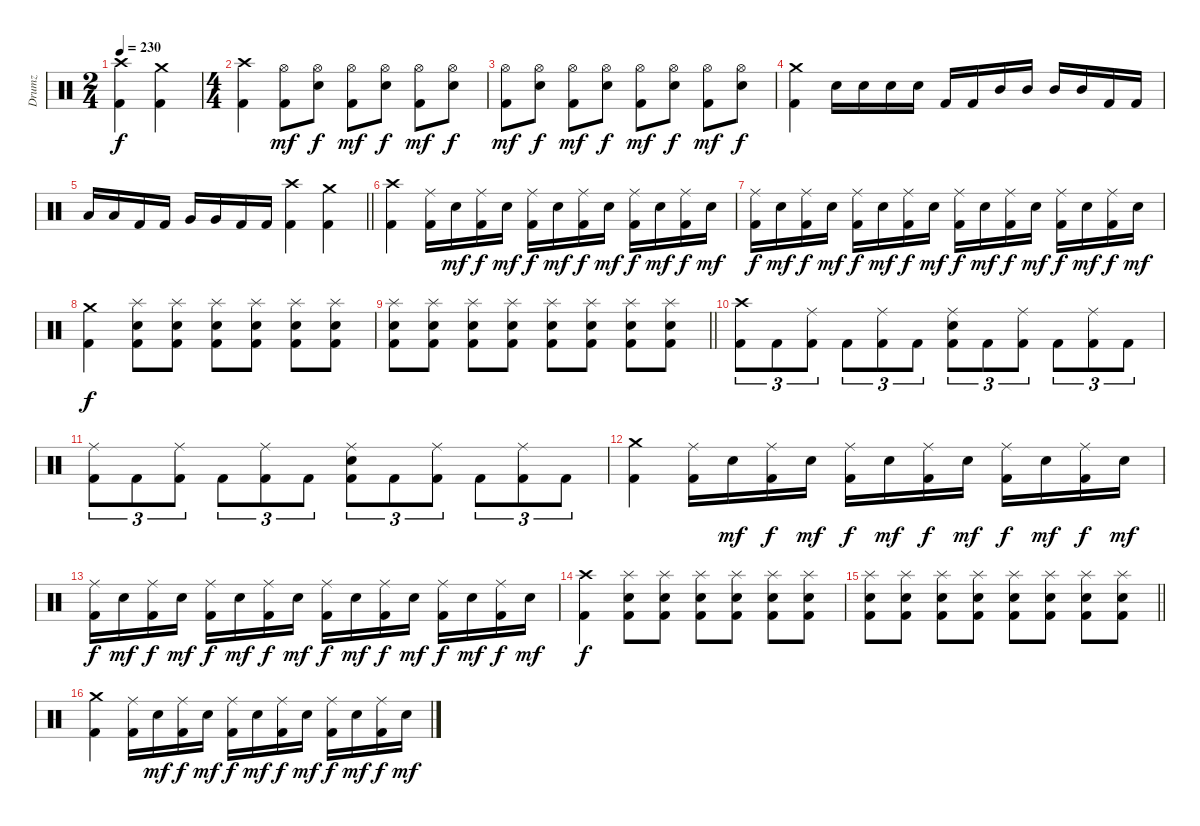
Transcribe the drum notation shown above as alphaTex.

\track ("Drumz" "Drumz") {instrument percussion}
\staff {score}
\articulation defaults
\ts (2 4)
\tempo 230
\clef neutral
\ks c
("Crash high (hit)" "Kick (hit) 2").4{dy f} ("Crash medium (hit)" "Kick (hit) 2").4 |
\ts (4 4)
("Crash high (hit)" "Kick (hit) 2").4 ("Hi-Hat (open)" "Kick (hit) 2").8{dy mf} ("Hi-Hat (open)" "Electric Snare (hit)").8{dy f} ("Hi-Hat (open)" "Kick (hit) 2").8{dy mf} ("Hi-Hat (open)" "Electric Snare (hit)").8{dy f} ("Hi-Hat (open)" "Kick (hit) 2").8{dy mf} ("Hi-Hat (open)" "Electric Snare (hit)").8{dy f} |
("Hi-Hat (open)" "Kick (hit) 2").8{dy mf} ("Hi-Hat (open)" "Electric Snare (hit)").8{dy f} ("Hi-Hat (open)" "Kick (hit) 2").8{dy mf} ("Hi-Hat (open)" "Electric Snare (hit)").8{dy f} ("Hi-Hat (open)" "Kick (hit) 2").8{dy mf} ("Hi-Hat (open)" "Electric Snare (hit)").8{dy f} ("Hi-Hat (open)" "Kick (hit) 2").8{dy mf} ("Hi-Hat (open)" "Electric Snare (hit)").8{dy f} |
("Crash medium (hit)" "Kick (hit) 2").4 "Electric Snare (hit)".16 "Electric Snare (hit)".16 "Electric Snare (hit)".16 "Electric Snare (hit)".16 "Kick (hit) 2".16 "Kick (hit) 2".16 "Mid Tom (hit)".16 "Mid Tom (hit)".16 "Mid Tom (hit)".16 "Mid Tom (hit)".16 "Kick (hit) 2".16 "Kick (hit) 2".16 |
\barLineRight lightlight "Low Tom (hit)".16 "Low Tom (hit)".16 "Kick (hit) 2".16 "Kick (hit) 2".16 "Very Low Tom (hit)".16 "Very Low Tom (hit)".16 "Kick (hit) 2".16 "Kick (hit) 2".16
("Crash high (hit)" "Kick (hit) 2").4 ("Crash medium (hit)" "Kick (hit) 2").4 |
\section ("" "")
("Crash high (hit)" "Kick (hit) 2").4 ("Ride (middle)" "Kick (hit) 2").16 "Electric Snare (hit)".16{dy mf} ("Ride (middle)" "Kick (hit) 2").16{dy f} "Electric Snare (hit)".16{dy mf} ("Ride (middle)" "Kick (hit) 2").16{dy f} "Electric Snare (hit)".16{dy mf} ("Ride (middle)" "Kick (hit) 2").16{dy f} "Electric Snare (hit)".16{dy mf} ("Ride (middle)" "Kick (hit) 2").16{dy f} "Electric Snare (hit)".16{dy mf} ("Ride (middle)" "Kick (hit) 2").16{dy f} "Electric Snare (hit)".16{dy mf} |
("Ride (middle)" "Kick (hit) 2").16{dy f} "Electric Snare (hit)".16{dy mf} ("Ride (middle)" "Kick (hit) 2").16{dy f} "Electric Snare (hit)".16{dy mf} ("Ride (middle)" "Kick (hit) 2").16{dy f} "Electric Snare (hit)".16{dy mf} ("Ride (middle)" "Kick (hit) 2").16{dy f} "Electric Snare (hit)".16{dy mf} ("Ride (middle)" "Kick (hit) 2").16{dy f} "Electric Snare (hit)".16{dy mf} ("Ride (middle)" "Kick (hit) 2").16{dy f} "Electric Snare (hit)".16{dy mf} ("Ride (middle)" "Kick (hit) 2").16{dy f} "Electric Snare (hit)".16{dy mf} ("Ride (middle)" "Kick (hit) 2").16{dy f} "Electric Snare (hit)".16{dy mf} |
("Crash medium (hit)" "Kick (hit) 2").4{dy f} ("Splash (hit)" "Electric Snare (hit)" "Kick (hit) 2").8 ("Splash (hit)" "Electric Snare (hit)" "Kick (hit) 2").8 ("Splash (hit)" "Electric Snare (hit)" "Kick (hit) 2").8 ("Splash (hit)" "Electric Snare (hit)" "Kick (hit) 2").8 ("Splash (hit)" "Electric Snare (hit)" "Kick (hit) 2").8 ("Splash (hit)" "Electric Snare (hit)" "Kick (hit) 2").8 |
\barLineRight lightlight
("Splash (hit)" "Electric Snare (hit)" "Kick (hit) 2").8 ("Splash (hit)" "Electric Snare (hit)" "Kick (hit) 2").8 ("Splash (hit)" "Electric Snare (hit)" "Kick (hit) 2").8 ("Splash (hit)" "Electric Snare (hit)" "Kick (hit) 2").8 ("Splash (hit)" "Electric Snare (hit)" "Kick (hit) 2").8 ("Splash (hit)" "Electric Snare (hit)" "Kick (hit) 2").8 ("Splash (hit)" "Electric Snare (hit)" "Kick (hit) 2").8 ("Splash (hit)" "Electric Snare (hit)" "Kick (hit) 2").8 |
("Crash high (hit)" "Kick (hit) 2").8{tu (3 2)} "Kick (hit) 2".8{tu (3 2)} ("Ride (middle)" "Kick (hit) 2").8{tu (3 2)} "Kick (hit) 2".8{tu (3 2)} ("Ride (middle)" "Kick (hit) 2").8{tu (3 2)} "Kick (hit) 2".8{tu (3 2)} ("Ride (middle)" "Electric Snare (hit)" "Kick (hit) 2").8{tu (3 2)} "Kick (hit) 2".8{tu (3 2)} ("Ride (middle)" "Kick (hit) 2").8{tu (3 2)} "Kick (hit) 2".8{tu (3 2)} ("Ride (middle)" "Kick (hit) 2").8{tu (3 2)} "Kick (hit) 2".8{tu (3 2)} |
("Ride (middle)" "Kick (hit) 2").8{tu (3 2)} "Kick (hit) 2".8{tu (3 2)} ("Ride (middle)" "Kick (hit) 2").8{tu (3 2)} "Kick (hit) 2".8{tu (3 2)} ("Ride (middle)" "Kick (hit) 2").8{tu (3 2)} "Kick (hit) 2".8{tu (3 2)} ("Ride (middle)" "Electric Snare (hit)" "Kick (hit) 2").8{tu (3 2)} "Kick (hit) 2".8{tu (3 2)} ("Ride (middle)" "Kick (hit) 2").8{tu (3 2)} "Kick (hit) 2".8{tu (3 2)} ("Ride (middle)" "Kick (hit) 2").8{tu (3 2)} "Kick (hit) 2".8{tu (3 2)} |
("Crash medium (hit)" "Kick (hit) 2").4 ("Ride (middle)" "Kick (hit) 2").16 "Electric Snare (hit)".16{dy mf} ("Ride (middle)" "Kick (hit) 2").16{dy f} "Electric Snare (hit)".16{dy mf} ("Ride (middle)" "Kick (hit) 2").16{dy f} "Electric Snare (hit)".16{dy mf} ("Ride (middle)" "Kick (hit) 2").16{dy f} "Electric Snare (hit)".16{dy mf} ("Ride (middle)" "Kick (hit) 2").16{dy f} "Electric Snare (hit)".16{dy mf} ("Ride (middle)" "Kick (hit) 2").16{dy f} "Electric Snare (hit)".16{dy mf} |
("Ride (middle)" "Kick (hit) 2").16{dy f} "Electric Snare (hit)".16{dy mf} ("Ride (middle)" "Kick (hit) 2").16{dy f} "Electric Snare (hit)".16{dy mf} ("Ride (middle)" "Kick (hit) 2").16{dy f} "Electric Snare (hit)".16{dy mf} ("Ride (middle)" "Kick (hit) 2").16{dy f} "Electric Snare (hit)".16{dy mf} ("Ride (middle)" "Kick (hit) 2").16{dy f} "Electric Snare (hit)".16{dy mf} ("Ride (middle)" "Kick (hit) 2").16{dy f} "Electric Snare (hit)".16{dy mf} ("Ride (middle)" "Kick (hit) 2").16{dy f} "Electric Snare (hit)".16{dy mf} ("Ride (middle)" "Kick (hit) 2").16{dy f} "Electric Snare (hit)".16{dy mf} |
("Crash high (hit)" "Kick (hit) 2").4{dy f} ("Splash (hit)" "Electric Snare (hit)" "Kick (hit) 2").8 ("Splash (hit)" "Electric Snare (hit)" "Kick (hit) 2").8 ("Splash (hit)" "Electric Snare (hit)" "Kick (hit) 2").8 ("Splash (hit)" "Electric Snare (hit)" "Kick (hit) 2").8 ("Splash (hit)" "Electric Snare (hit)" "Kick (hit) 2").8 ("Splash (hit)" "Electric Snare (hit)" "Kick (hit) 2").8 |
\barLineRight lightlight
("Splash (hit)" "Electric Snare (hit)" "Kick (hit) 2").8 ("Splash (hit)" "Electric Snare (hit)" "Kick (hit) 2").8 ("Splash (hit)" "Electric Snare (hit)" "Kick (hit) 2").8 ("Splash (hit)" "Electric Snare (hit)" "Kick (hit) 2").8 ("Splash (hit)" "Electric Snare (hit)" "Kick (hit) 2").8 ("Splash (hit)" "Electric Snare (hit)" "Kick (hit) 2").8 ("Splash (hit)" "Electric Snare (hit)" "Kick (hit) 2").8 ("Splash (hit)" "Electric Snare (hit)" "Kick (hit) 2").8 |
("Crash medium (hit)" "Kick (hit) 2").4 ("Ride (middle)" "Kick (hit) 2").16 "Electric Snare (hit)".16{dy mf} ("Ride (middle)" "Kick (hit) 2").16{dy f} "Electric Snare (hit)".16{dy mf} ("Ride (middle)" "Kick (hit) 2").16{dy f} "Electric Snare (hit)".16{dy mf} ("Ride (middle)" "Kick (hit) 2").16{dy f} "Electric Snare (hit)".16{dy mf} ("Ride (middle)" "Kick (hit) 2").16{dy f} "Electric Snare (hit)".16{dy mf} ("Ride (middle)" "Kick (hit) 2").16{dy f} "Electric Snare (hit)".16{dy mf}
